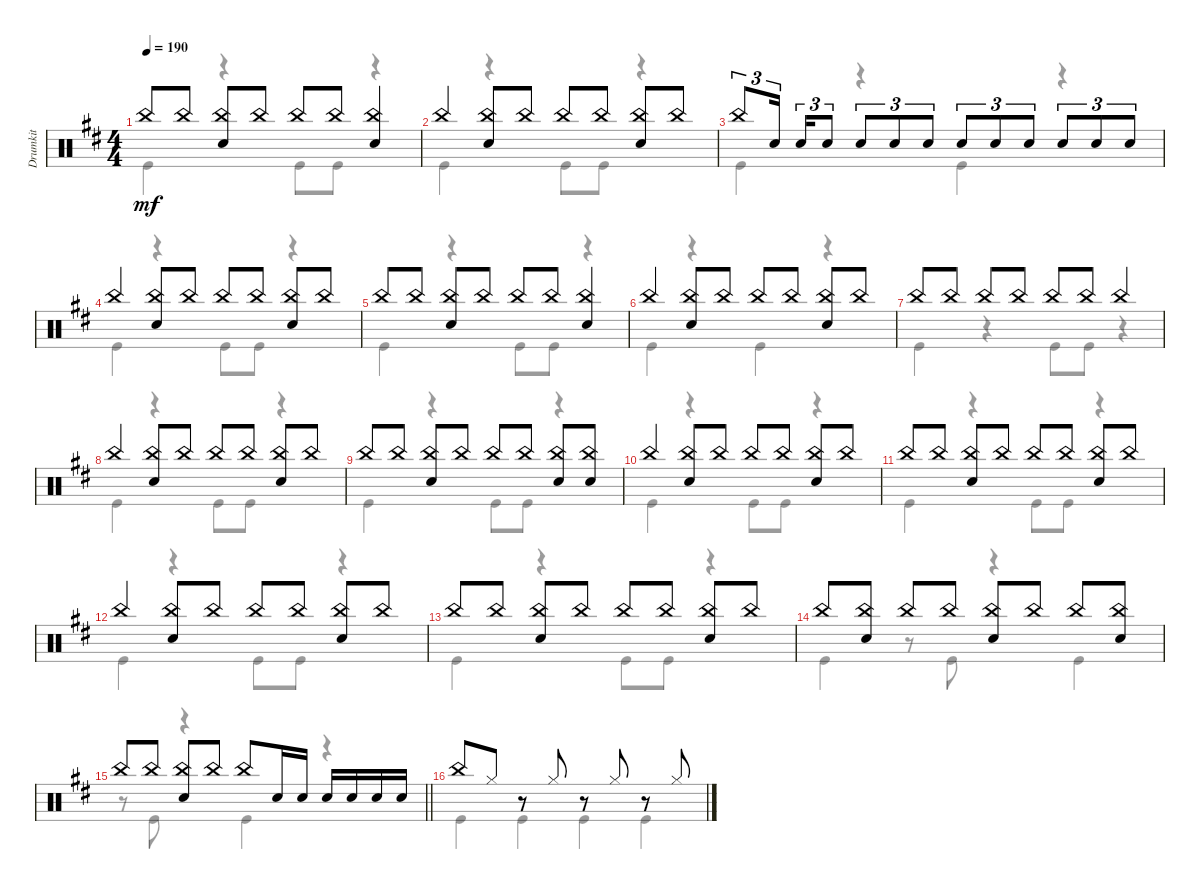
\track ("Drumkit" "Drumkit") {instrument percussion}
\staff {score}
\articulation defaults
\voice
\ts (4 4)
\tempo 190
\clef neutral
\ks d "China (hit)".8{dy mf} "China (hit)".8
("China (hit)" "Snare (hit) 2").8 "China (hit)".8 "China (hit)".8 "China (hit)".8 ("China (hit)" "Snare (hit) 2").4 |
"China (hit)".4 ("China (hit)" "Snare (hit) 2").8 "China (hit)".8 "China (hit)".8 "China (hit)".8 ("China (hit)" "Snare (hit) 2").8 "China (hit)".8 |
"China (hit)".8{tu (3 2)} "Snare (hit) 2".16{tu (3 2) beam splitsecondary} "Snare (hit) 2".16{tu (3 2)} "Snare (hit) 2".8{tu (3 2)} "Snare (hit) 2".8{tu (3 2)} "Snare (hit) 2".8{tu (3 2)} "Snare (hit) 2".8{tu (3 2)} "Snare (hit) 2".8{tu (3 2)} "Snare (hit) 2".8{tu (3 2)} "Snare (hit) 2".8{tu (3 2)} "Snare (hit) 2".8{tu (3 2)} "Snare (hit) 2".8{tu (3 2)} "Snare (hit) 2".8{tu (3 2)} |
"China (hit)".4 ("China (hit)" "Snare (hit) 2").8 "China (hit)".8 "China (hit)".8 "China (hit)".8 ("China (hit)" "Snare (hit) 2").8 "China (hit)".8 |
"China (hit)".8 "China (hit)".8 ("China (hit)" "Snare (hit) 2").8 "China (hit)".8 "China (hit)".8 "China (hit)".8 ("China (hit)" "Snare (hit) 2").4 |
"China (hit)".4 ("China (hit)" "Snare (hit) 2").8 "China (hit)".8 "China (hit)".8 "China (hit)".8 ("China (hit)" "Snare (hit) 2").8 "China (hit)".8 |
"China (hit)".8 "China (hit)".8 "China (hit)".8 "China (hit)".8 "China (hit)".8 "China (hit)".8 "China (hit)".4 |
"China (hit)".4 ("China (hit)" "Snare (hit) 2").8 "China (hit)".8 "China (hit)".8 "China (hit)".8 ("China (hit)" "Snare (hit) 2").8 "China (hit)".8 |
"China (hit)".8 "China (hit)".8 ("China (hit)" "Snare (hit) 2").8 "China (hit)".8 "China (hit)".8 "China (hit)".8 ("China (hit)" "Snare (hit) 2").8 ("China (hit)" "Snare (hit) 2").8 |
"China (hit)".4 ("China (hit)" "Snare (hit) 2").8 "China (hit)".8 "China (hit)".8 "China (hit)".8 ("China (hit)" "Snare (hit) 2").8 "China (hit)".8 |
"China (hit)".8 "China (hit)".8 ("China (hit)" "Snare (hit) 2").8 "China (hit)".8 "China (hit)".8 "China (hit)".8 ("China (hit)" "Snare (hit) 2").8 "China (hit)".8 |
"China (hit)".4 ("China (hit)" "Snare (hit) 2").8 "China (hit)".8 "China (hit)".8 "China (hit)".8 ("China (hit)" "Snare (hit) 2").8 "China (hit)".8 |
"China (hit)".8 "China (hit)".8 ("China (hit)" "Snare (hit) 2").8 "China (hit)".8 "China (hit)".8 "China (hit)".8 ("China (hit)" "Snare (hit) 2").8 "China (hit)".8 |
"China (hit)".8 ("China (hit)" "Snare (hit) 2").8 "China (hit)".8 "China (hit)".8 ("China (hit)" "Snare (hit) 2").8 "China (hit)".8 "China (hit)".8 ("China (hit)" "Snare (hit) 2").8 |
\barLineRight lightlight "China (hit)".8 "China (hit)".8
("China (hit)" "Snare (hit) 2").8 "China (hit)".8 "China (hit)".8 "Snare (hit) 2".16 "Snare (hit) 2".16 "Snare (hit) 2".16 "Snare (hit) 2".16 "Snare (hit) 2".16 "Snare (hit) 2".16 |
\section ("" "")
"China (hit)".8 "Hi-Hat (closed)".8 r.8 "Hi-Hat (closed)".8 r.8 "Hi-Hat (closed)".8 r.8 "Hi-Hat (closed)".8
\voice
\clef neutral
\ottava regular
\simile none
\ks d "Kick (hit)".4{dy mf}
r.4 "Kick (hit)".8 "Kick (hit)".8 r.4 |
"Kick (hit)".4 r.4 "Kick (hit)".8 "Kick (hit)".8 r.4 |
"Kick (hit)".4 r.4 "Kick (hit)".4 r.4 |
"Kick (hit)".4 r.4 "Kick (hit)".8 "Kick (hit)".8 r.4 |
"Kick (hit)".4 r.4 "Kick (hit)".8 "Kick (hit)".8 r.4 |
"Kick (hit)".4 r.4 "Kick (hit)".4 r.4 |
"Kick (hit)".4 r.4 "Kick (hit)".8 "Kick (hit)".8 r.4 |
"Kick (hit)".4 r.4 "Kick (hit)".8 "Kick (hit)".8 r.4 |
"Kick (hit)".4 r.4 "Kick (hit)".8 "Kick (hit)".8 r.4 |
"Kick (hit)".4 r.4 "Kick (hit)".8 "Kick (hit)".8 r.4 |
"Kick (hit)".4 r.4 "Kick (hit)".8 "Kick (hit)".8 r.4 |
"Kick (hit)".4 r.4 "Kick (hit)".8 "Kick (hit)".8 r.4 |
"Kick (hit)".4 r.4 "Kick (hit)".8 "Kick (hit)".8 r.4 |
"Kick (hit)".4 r.8 "Kick (hit)".8 r.4 "Kick (hit)".4 |
\barLineRight lightlight
r.8 "Kick (hit)".8 r.4 "Kick (hit)".4 r.4 |
"Kick (hit)".4 "Kick (hit)".4 "Kick (hit)".4 "Kick (hit)".4
